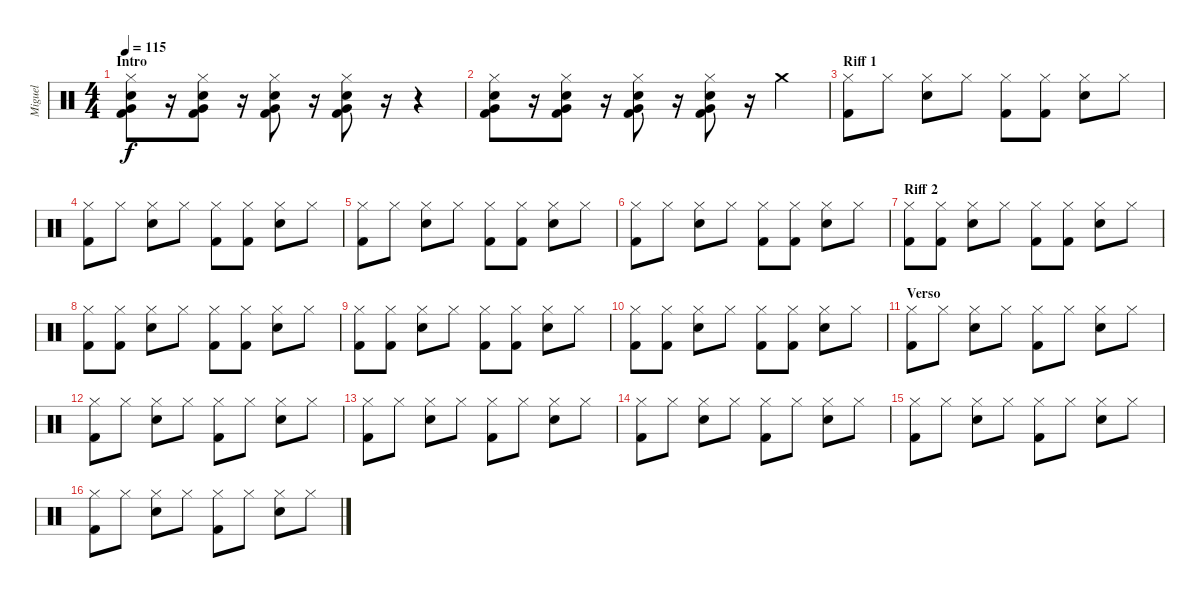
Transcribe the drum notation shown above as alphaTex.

\track ("Miguel" "Miguel") {instrument percussion}
\staff {score}
\articulation defaults
\ts (4 4)
\section ("" "Intro")
\tempo 115
\clef neutral
\ks c
("Hi-Hat (closed)" "Snare (hit) 2" "Very Low Tom (hit)" "Kick (hit) 2").8{dy f} r.16 ("Hi-Hat (closed)" "Snare (hit) 2" "Very Low Tom (hit)" "Kick (hit) 2").8 r.16 ("Hi-Hat (closed)" "Snare (hit) 2" "Very Low Tom (hit)" "Kick (hit) 2").8 r.16 ("Hi-Hat (closed)" "Snare (hit) 2" "Very Low Tom (hit)" "Kick (hit) 2").8 r.16 r.4 |
("Hi-Hat (closed)" "Snare (hit) 2" "Very Low Tom (hit)" "Kick (hit) 2").8 r.16 ("Hi-Hat (closed)" "Snare (hit) 2" "Very Low Tom (hit)" "Kick (hit) 2").8 r.16 ("Hi-Hat (closed)" "Snare (hit) 2" "Very Low Tom (hit)" "Kick (hit) 2").8 r.16 ("Hi-Hat (closed)" "Snare (hit) 2" "Very Low Tom (hit)" "Kick (hit) 2").8 r.16 "Crash medium (hit)".4 |
\section ("" "Riff 1")
("Hi-Hat (closed)" "Kick (hit) 2").8 "Hi-Hat (closed)".8 ("Hi-Hat (closed)" "Snare (hit) 2").8 "Hi-Hat (closed)".8 ("Hi-Hat (closed)" "Kick (hit) 2").8 ("Hi-Hat (closed)" "Kick (hit) 2").8 ("Hi-Hat (closed)" "Snare (hit) 2").8 "Hi-Hat (closed)".8 |
("Hi-Hat (closed)" "Kick (hit) 2").8 "Hi-Hat (closed)".8 ("Hi-Hat (closed)" "Snare (hit) 2").8 "Hi-Hat (closed)".8 ("Hi-Hat (closed)" "Kick (hit) 2").8 ("Hi-Hat (closed)" "Kick (hit) 2").8 ("Hi-Hat (closed)" "Snare (hit) 2").8 "Hi-Hat (closed)".8 |
("Hi-Hat (closed)" "Kick (hit) 2").8 "Hi-Hat (closed)".8 ("Hi-Hat (closed)" "Snare (hit) 2").8 "Hi-Hat (closed)".8 ("Hi-Hat (closed)" "Kick (hit) 2").8 ("Hi-Hat (closed)" "Kick (hit) 2").8 ("Hi-Hat (closed)" "Snare (hit) 2").8 "Hi-Hat (closed)".8 |
("Hi-Hat (closed)" "Kick (hit) 2").8 "Hi-Hat (closed)".8 ("Hi-Hat (closed)" "Snare (hit) 2").8 "Hi-Hat (closed)".8 ("Hi-Hat (closed)" "Kick (hit) 2").8 ("Hi-Hat (closed)" "Kick (hit) 2").8 ("Hi-Hat (closed)" "Snare (hit) 2").8 "Hi-Hat (closed)".8 |
\section ("" "Riff 2")
("Hi-Hat (closed)" "Kick (hit) 2").8 ("Hi-Hat (closed)" "Kick (hit) 2").8 ("Hi-Hat (closed)" "Snare (hit) 2").8 "Hi-Hat (closed)".8 ("Hi-Hat (closed)" "Kick (hit) 2").8 ("Hi-Hat (closed)" "Kick (hit) 2").8 ("Hi-Hat (closed)" "Snare (hit) 2").8 "Hi-Hat (closed)".8 |
("Hi-Hat (closed)" "Kick (hit) 2").8 ("Hi-Hat (closed)" "Kick (hit) 2").8 ("Hi-Hat (closed)" "Snare (hit) 2").8 "Hi-Hat (closed)".8 ("Hi-Hat (closed)" "Kick (hit) 2").8 ("Hi-Hat (closed)" "Kick (hit) 2").8 ("Hi-Hat (closed)" "Snare (hit) 2").8 "Hi-Hat (closed)".8 |
("Hi-Hat (closed)" "Kick (hit) 2").8 ("Hi-Hat (closed)" "Kick (hit) 2").8 ("Hi-Hat (closed)" "Snare (hit) 2").8 "Hi-Hat (closed)".8 ("Hi-Hat (closed)" "Kick (hit) 2").8 ("Hi-Hat (closed)" "Kick (hit) 2").8 ("Hi-Hat (closed)" "Snare (hit) 2").8 "Hi-Hat (closed)".8 |
("Hi-Hat (closed)" "Kick (hit) 2").8 ("Hi-Hat (closed)" "Kick (hit) 2").8 ("Hi-Hat (closed)" "Snare (hit) 2").8 "Hi-Hat (closed)".8 ("Hi-Hat (closed)" "Kick (hit) 2").8 ("Hi-Hat (closed)" "Kick (hit) 2").8 ("Hi-Hat (closed)" "Snare (hit) 2").8 "Hi-Hat (closed)".8 |
\section ("" "Verso")
("Hi-Hat (closed)" "Kick (hit) 2").8 "Hi-Hat (closed)".8 ("Hi-Hat (closed)" "Snare (hit) 2").8 "Hi-Hat (closed)".8 ("Hi-Hat (closed)" "Kick (hit) 2").8 "Hi-Hat (closed)".8 ("Hi-Hat (closed)" "Snare (hit) 2").8 "Hi-Hat (closed)".8 |
("Hi-Hat (closed)" "Kick (hit) 2").8 "Hi-Hat (closed)".8 ("Hi-Hat (closed)" "Snare (hit) 2").8 "Hi-Hat (closed)".8 ("Hi-Hat (closed)" "Kick (hit) 2").8 "Hi-Hat (closed)".8 ("Hi-Hat (closed)" "Snare (hit) 2").8 "Hi-Hat (closed)".8 |
("Hi-Hat (closed)" "Kick (hit) 2").8 "Hi-Hat (closed)".8 ("Hi-Hat (closed)" "Snare (hit) 2").8 "Hi-Hat (closed)".8 ("Hi-Hat (closed)" "Kick (hit) 2").8 "Hi-Hat (closed)".8 ("Hi-Hat (closed)" "Snare (hit) 2").8 "Hi-Hat (closed)".8 |
("Hi-Hat (closed)" "Kick (hit) 2").8 "Hi-Hat (closed)".8 ("Hi-Hat (closed)" "Snare (hit) 2").8 "Hi-Hat (closed)".8 ("Hi-Hat (closed)" "Kick (hit) 2").8 "Hi-Hat (closed)".8 ("Hi-Hat (closed)" "Snare (hit) 2").8 "Hi-Hat (closed)".8 |
("Hi-Hat (closed)" "Kick (hit) 2").8 "Hi-Hat (closed)".8 ("Hi-Hat (closed)" "Snare (hit) 2").8 "Hi-Hat (closed)".8 ("Hi-Hat (closed)" "Kick (hit) 2").8 "Hi-Hat (closed)".8 ("Hi-Hat (closed)" "Snare (hit) 2").8 "Hi-Hat (closed)".8 |
("Hi-Hat (closed)" "Kick (hit) 2").8 "Hi-Hat (closed)".8 ("Hi-Hat (closed)" "Snare (hit) 2").8 "Hi-Hat (closed)".8 ("Hi-Hat (closed)" "Kick (hit) 2").8 "Hi-Hat (closed)".8 ("Hi-Hat (closed)" "Snare (hit) 2").8 "Hi-Hat (closed)".8
